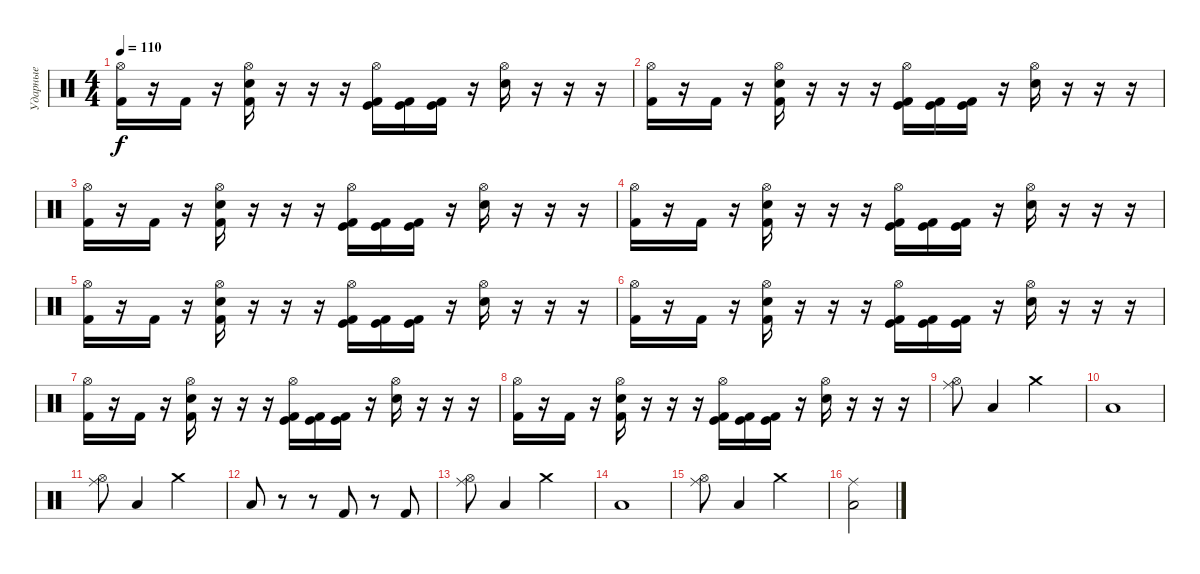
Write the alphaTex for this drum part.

\track ("Ударные" "Ударные") {instrument percussion}
\staff {score}
\articulation defaults
\ts (4 4)
\tempo 110
\clef neutral
\ks c
("Hi-Hat (open)" "Kick (hit) 2").16{dy f} r.16 "Kick (hit) 2".16 r.16 ("Hi-Hat (open)" "Electric Snare (hit)" "Kick (hit) 2").16 r.16 r.16 r.16 ("Hi-Hat (open)" "Kick (hit)" "Kick (hit) 2").16 ("Kick (hit)" "Kick (hit) 2").16 ("Kick (hit)" "Kick (hit) 2").16 r.16 ("Hi-Hat (open)" "Electric Snare (hit)").16 r.16 r.16 r.16 |
("Hi-Hat (open)" "Kick (hit) 2").16 r.16 "Kick (hit) 2".16 r.16 ("Hi-Hat (open)" "Electric Snare (hit)" "Kick (hit) 2").16 r.16 r.16 r.16 ("Hi-Hat (open)" "Kick (hit)" "Kick (hit) 2").16 ("Kick (hit)" "Kick (hit) 2").16 ("Kick (hit)" "Kick (hit) 2").16 r.16 ("Hi-Hat (open)" "Electric Snare (hit)").16 r.16 r.16 r.16 |
("Hi-Hat (open)" "Kick (hit) 2").16 r.16 "Kick (hit) 2".16 r.16 ("Hi-Hat (open)" "Electric Snare (hit)" "Kick (hit) 2").16 r.16 r.16 r.16 ("Hi-Hat (open)" "Kick (hit)" "Kick (hit) 2").16 ("Kick (hit)" "Kick (hit) 2").16 ("Kick (hit)" "Kick (hit) 2").16 r.16 ("Hi-Hat (open)" "Electric Snare (hit)").16 r.16 r.16 r.16 |
("Hi-Hat (open)" "Kick (hit) 2").16 r.16 "Kick (hit) 2".16 r.16 ("Hi-Hat (open)" "Electric Snare (hit)" "Kick (hit) 2").16 r.16 r.16 r.16 ("Hi-Hat (open)" "Kick (hit)" "Kick (hit) 2").16 ("Kick (hit)" "Kick (hit) 2").16 ("Kick (hit)" "Kick (hit) 2").16 r.16 ("Hi-Hat (open)" "Electric Snare (hit)").16 r.16 r.16 r.16 |
("Hi-Hat (open)" "Kick (hit) 2").16 r.16 "Kick (hit) 2".16 r.16 ("Hi-Hat (open)" "Electric Snare (hit)" "Kick (hit) 2").16 r.16 r.16 r.16 ("Hi-Hat (open)" "Kick (hit)" "Kick (hit) 2").16 ("Kick (hit)" "Kick (hit) 2").16 ("Kick (hit)" "Kick (hit) 2").16 r.16 ("Hi-Hat (open)" "Electric Snare (hit)").16 r.16 r.16 r.16 |
("Hi-Hat (open)" "Kick (hit) 2").16 r.16 "Kick (hit) 2".16 r.16 ("Hi-Hat (open)" "Electric Snare (hit)" "Kick (hit) 2").16 r.16 r.16 r.16 ("Hi-Hat (open)" "Kick (hit)" "Kick (hit) 2").16 ("Kick (hit)" "Kick (hit) 2").16 ("Kick (hit)" "Kick (hit) 2").16 r.16 ("Hi-Hat (open)" "Electric Snare (hit)").16 r.16 r.16 r.16 |
("Hi-Hat (open)" "Kick (hit) 2").16 r.16 "Kick (hit) 2".16 r.16 ("Hi-Hat (open)" "Electric Snare (hit)" "Kick (hit) 2").16 r.16 r.16 r.16 ("Hi-Hat (open)" "Kick (hit)" "Kick (hit) 2").16 ("Kick (hit)" "Kick (hit) 2").16 ("Kick (hit)" "Kick (hit) 2").16 r.16 ("Hi-Hat (open)" "Electric Snare (hit)").16 r.16 r.16 r.16 |
("Hi-Hat (open)" "Kick (hit) 2").16 r.16 "Kick (hit) 2".16 r.16 ("Hi-Hat (open)" "Electric Snare (hit)" "Kick (hit) 2").16 r.16 r.16 r.16 ("Hi-Hat (open)" "Kick (hit)" "Kick (hit) 2").16 ("Kick (hit)" "Kick (hit) 2").16 ("Kick (hit)" "Kick (hit) 2").16 r.16 ("Hi-Hat (open)" "Electric Snare (hit)").16 r.16 r.16 r.16 |
("Hi-Hat (open)" "Ride (middle)").8 "Low Floor Tom (hit)".4 "Crash medium (hit)".2 |
"Low Floor Tom (hit)".1 |
("Hi-Hat (open)" "Ride (middle)").8 "Low Floor Tom (hit)".4 "Crash medium (hit)".2 |
"Low Floor Tom (hit)".8 r.8 r.8 "Kick (hit) 2".8 r.8 "Kick (hit) 2".8 |
("Hi-Hat (open)" "Ride (middle)").8 "Low Floor Tom (hit)".4 "Crash medium (hit)".2 |
"Low Floor Tom (hit)".1 |
("Hi-Hat (open)" "Ride (middle)").8 "Low Floor Tom (hit)".4 "Crash medium (hit)".2 |
("Low Floor Tom (hit)" "Ride (middle)").2
